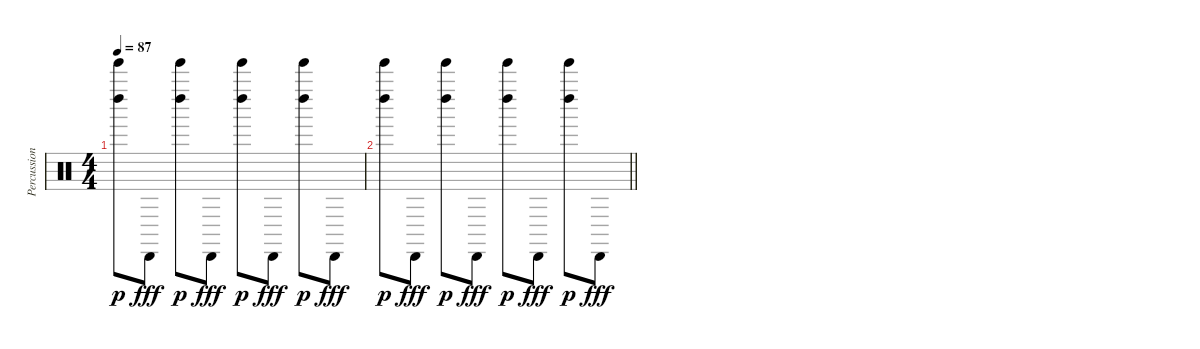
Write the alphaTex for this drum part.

\track ("Percussioni" "Percussion") {instrument percussion}
\staff {score}
\articulation defaults
\ts (4 4)
\tempo 87
\clef neutral
\ks c
("Left Maraca (hit)" "Tinkle Bell (hit)").8{dy p} "Cabasa (hit)".8{dy fff} ("Left Maraca (hit)" "Tinkle Bell (hit)").8{dy p} "Cabasa (hit)".8{dy fff} ("Left Maraca (hit)" "Tinkle Bell (hit)").8{dy p} "Cabasa (hit)".8{dy fff} ("Left Maraca (hit)" "Tinkle Bell (hit)").8{dy p} "Cabasa (hit)".8{dy fff} |
\barLineRight lightlight
("Left Maraca (hit)" "Tinkle Bell (hit)").8{dy p} "Cabasa (hit)".8{dy fff} ("Left Maraca (hit)" "Tinkle Bell (hit)").8{dy p} "Cabasa (hit)".8{dy fff} ("Left Maraca (hit)" "Tinkle Bell (hit)").8{dy p} "Cabasa (hit)".8{dy fff} ("Left Maraca (hit)" "Tinkle Bell (hit)").8{dy p} "Cabasa (hit)".8{dy fff}
